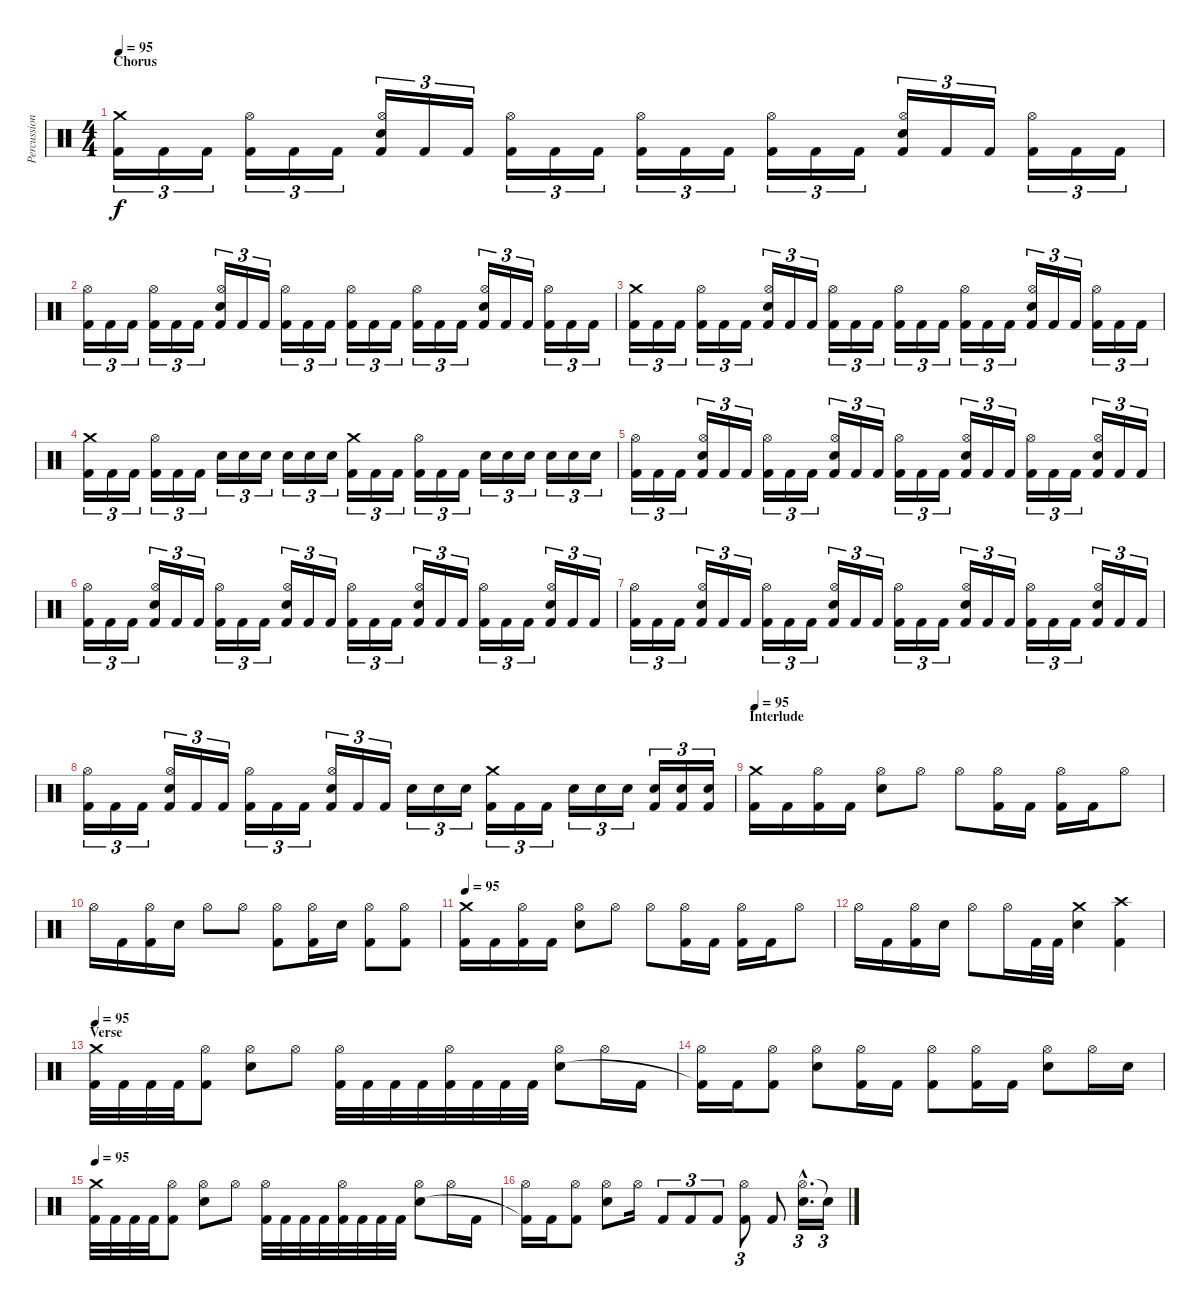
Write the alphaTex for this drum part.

\track ("Percussions" "Percussion") {instrument percussion}
\staff {score}
\articulation defaults
\ts (4 4)
\section ("" "Chorus")
\tempo 95
\clef neutral
\ks c
("Crash medium (hit)" "Kick (hit) 2").16{tu (3 2) dy f} "Kick (hit) 2".16{tu (3 2)} "Kick (hit) 2".16{tu (3 2)} ("Hi-Hat (open)" "Kick (hit) 2").16{tu (3 2)} "Kick (hit) 2".16{tu (3 2)} "Kick (hit) 2".16{tu (3 2)} ("Hi-Hat (open)" "Electric Snare (hit)" "Kick (hit) 2").16{tu (3 2)} "Kick (hit) 2".16{tu (3 2)} "Kick (hit) 2".16{tu (3 2)} ("Hi-Hat (open)" "Kick (hit) 2").16{tu (3 2)} "Kick (hit) 2".16{tu (3 2)} "Kick (hit) 2".16{tu (3 2)} ("Hi-Hat (open)" "Kick (hit) 2").16{tu (3 2)} "Kick (hit) 2".16{tu (3 2)} "Kick (hit) 2".16{tu (3 2)} ("Hi-Hat (open)" "Kick (hit) 2").16{tu (3 2)} "Kick (hit) 2".16{tu (3 2)} "Kick (hit) 2".16{tu (3 2)} ("Hi-Hat (open)" "Electric Snare (hit)" "Kick (hit) 2").16{tu (3 2)} "Kick (hit) 2".16{tu (3 2)} "Kick (hit) 2".16{tu (3 2)} ("Hi-Hat (open)" "Kick (hit) 2").16{tu (3 2)} "Kick (hit) 2".16{tu (3 2)} "Kick (hit) 2".16{tu (3 2)} |
("Hi-Hat (open)" "Kick (hit) 2").16{tu (3 2)} "Kick (hit) 2".16{tu (3 2)} "Kick (hit) 2".16{tu (3 2)} ("Hi-Hat (open)" "Kick (hit) 2").16{tu (3 2)} "Kick (hit) 2".16{tu (3 2)} "Kick (hit) 2".16{tu (3 2)} ("Hi-Hat (open)" "Electric Snare (hit)" "Kick (hit) 2").16{tu (3 2)} "Kick (hit) 2".16{tu (3 2)} "Kick (hit) 2".16{tu (3 2)} ("Hi-Hat (open)" "Kick (hit) 2").16{tu (3 2)} "Kick (hit) 2".16{tu (3 2)} "Kick (hit) 2".16{tu (3 2)} ("Hi-Hat (open)" "Kick (hit) 2").16{tu (3 2)} "Kick (hit) 2".16{tu (3 2)} "Kick (hit) 2".16{tu (3 2)} ("Hi-Hat (open)" "Kick (hit) 2").16{tu (3 2)} "Kick (hit) 2".16{tu (3 2)} "Kick (hit) 2".16{tu (3 2)} ("Hi-Hat (open)" "Electric Snare (hit)" "Kick (hit) 2").16{tu (3 2)} "Kick (hit) 2".16{tu (3 2)} "Kick (hit) 2".16{tu (3 2)} ("Hi-Hat (open)" "Kick (hit) 2").16{tu (3 2)} "Kick (hit) 2".16{tu (3 2)} "Kick (hit) 2".16{tu (3 2)} |
("Crash medium (hit)" "Kick (hit) 2").16{tu (3 2)} "Kick (hit) 2".16{tu (3 2)} "Kick (hit) 2".16{tu (3 2)} ("Hi-Hat (open)" "Kick (hit) 2").16{tu (3 2)} "Kick (hit) 2".16{tu (3 2)} "Kick (hit) 2".16{tu (3 2)} ("Hi-Hat (open)" "Electric Snare (hit)" "Kick (hit) 2").16{tu (3 2)} "Kick (hit) 2".16{tu (3 2)} "Kick (hit) 2".16{tu (3 2)} ("Hi-Hat (open)" "Kick (hit) 2").16{tu (3 2)} "Kick (hit) 2".16{tu (3 2)} "Kick (hit) 2".16{tu (3 2)} ("Hi-Hat (open)" "Kick (hit) 2").16{tu (3 2)} "Kick (hit) 2".16{tu (3 2)} "Kick (hit) 2".16{tu (3 2)} ("Hi-Hat (open)" "Kick (hit) 2").16{tu (3 2)} "Kick (hit) 2".16{tu (3 2)} "Kick (hit) 2".16{tu (3 2)} ("Hi-Hat (open)" "Electric Snare (hit)" "Kick (hit) 2").16{tu (3 2)} "Kick (hit) 2".16{tu (3 2)} "Kick (hit) 2".16{tu (3 2)} ("Hi-Hat (open)" "Kick (hit) 2").16{tu (3 2)} "Kick (hit) 2".16{tu (3 2)} "Kick (hit) 2".16{tu (3 2)} |
("Crash medium (hit)" "Kick (hit) 2").16{tu (3 2)} "Kick (hit) 2".16{tu (3 2)} "Kick (hit) 2".16{tu (3 2)} ("Hi-Hat (open)" "Kick (hit) 2").16{tu (3 2)} "Kick (hit) 2".16{tu (3 2)} "Kick (hit) 2".16{tu (3 2)} "Electric Snare (hit)".16{tu (3 2)} "Electric Snare (hit)".16{tu (3 2)} "Electric Snare (hit)".16{tu (3 2)} "Electric Snare (hit)".16{tu (3 2)} "Electric Snare (hit)".16{tu (3 2)} "Electric Snare (hit)".16{tu (3 2)} ("Crash medium (hit)" "Kick (hit) 2").16{tu (3 2)} "Kick (hit) 2".16{tu (3 2)} "Kick (hit) 2".16{tu (3 2)} ("Hi-Hat (open)" "Kick (hit) 2").16{tu (3 2)} "Kick (hit) 2".16{tu (3 2)} "Kick (hit) 2".16{tu (3 2)} "Electric Snare (hit)".16{tu (3 2)} "Electric Snare (hit)".16{tu (3 2)} "Electric Snare (hit)".16{tu (3 2)} "Electric Snare (hit)".16{tu (3 2)} "Electric Snare (hit)".16{tu (3 2)} "Electric Snare (hit)".16{tu (3 2)} |
("Hi-Hat (open)" "Kick (hit) 2").16{tu (3 2)} "Kick (hit) 2".16{tu (3 2)} "Kick (hit) 2".16{tu (3 2)} ("Hi-Hat (open)" "Electric Snare (hit)" "Kick (hit) 2").16{tu (3 2)} "Kick (hit) 2".16{tu (3 2)} "Kick (hit) 2".16{tu (3 2)} ("Hi-Hat (open)" "Kick (hit) 2").16{tu (3 2)} "Kick (hit) 2".16{tu (3 2)} "Kick (hit) 2".16{tu (3 2)} ("Hi-Hat (open)" "Electric Snare (hit)" "Kick (hit) 2").16{tu (3 2)} "Kick (hit) 2".16{tu (3 2)} "Kick (hit) 2".16{tu (3 2)} ("Hi-Hat (open)" "Kick (hit) 2").16{tu (3 2)} "Kick (hit) 2".16{tu (3 2)} "Kick (hit) 2".16{tu (3 2)} ("Hi-Hat (open)" "Electric Snare (hit)" "Kick (hit) 2").16{tu (3 2)} "Kick (hit) 2".16{tu (3 2)} "Kick (hit) 2".16{tu (3 2)} ("Hi-Hat (open)" "Kick (hit) 2").16{tu (3 2)} "Kick (hit) 2".16{tu (3 2)} "Kick (hit) 2".16{tu (3 2)} ("Hi-Hat (open)" "Electric Snare (hit)" "Kick (hit) 2").16{tu (3 2)} "Kick (hit) 2".16{tu (3 2)} "Kick (hit) 2".16{tu (3 2)} |
("Hi-Hat (open)" "Kick (hit) 2").16{tu (3 2)} "Kick (hit) 2".16{tu (3 2)} "Kick (hit) 2".16{tu (3 2)} ("Hi-Hat (open)" "Electric Snare (hit)" "Kick (hit) 2").16{tu (3 2)} "Kick (hit) 2".16{tu (3 2)} "Kick (hit) 2".16{tu (3 2)} ("Hi-Hat (open)" "Kick (hit) 2").16{tu (3 2)} "Kick (hit) 2".16{tu (3 2)} "Kick (hit) 2".16{tu (3 2)} ("Hi-Hat (open)" "Electric Snare (hit)" "Kick (hit) 2").16{tu (3 2)} "Kick (hit) 2".16{tu (3 2)} "Kick (hit) 2".16{tu (3 2)} ("Hi-Hat (open)" "Kick (hit) 2").16{tu (3 2)} "Kick (hit) 2".16{tu (3 2)} "Kick (hit) 2".16{tu (3 2)} ("Hi-Hat (open)" "Electric Snare (hit)" "Kick (hit) 2").16{tu (3 2)} "Kick (hit) 2".16{tu (3 2)} "Kick (hit) 2".16{tu (3 2)} ("Hi-Hat (open)" "Kick (hit) 2").16{tu (3 2)} "Kick (hit) 2".16{tu (3 2)} "Kick (hit) 2".16{tu (3 2)} ("Hi-Hat (open)" "Electric Snare (hit)" "Kick (hit) 2").16{tu (3 2)} "Kick (hit) 2".16{tu (3 2)} "Kick (hit) 2".16{tu (3 2)} |
("Hi-Hat (open)" "Kick (hit) 2").16{tu (3 2)} "Kick (hit) 2".16{tu (3 2)} "Kick (hit) 2".16{tu (3 2)} ("Hi-Hat (open)" "Electric Snare (hit)" "Kick (hit) 2").16{tu (3 2)} "Kick (hit) 2".16{tu (3 2)} "Kick (hit) 2".16{tu (3 2)} ("Hi-Hat (open)" "Kick (hit) 2").16{tu (3 2)} "Kick (hit) 2".16{tu (3 2)} "Kick (hit) 2".16{tu (3 2)} ("Hi-Hat (open)" "Electric Snare (hit)" "Kick (hit) 2").16{tu (3 2)} "Kick (hit) 2".16{tu (3 2)} "Kick (hit) 2".16{tu (3 2)} ("Hi-Hat (open)" "Kick (hit) 2").16{tu (3 2)} "Kick (hit) 2".16{tu (3 2)} "Kick (hit) 2".16{tu (3 2)} ("Hi-Hat (open)" "Electric Snare (hit)" "Kick (hit) 2").16{tu (3 2)} "Kick (hit) 2".16{tu (3 2)} "Kick (hit) 2".16{tu (3 2)} ("Hi-Hat (open)" "Kick (hit) 2").16{tu (3 2)} "Kick (hit) 2".16{tu (3 2)} "Kick (hit) 2".16{tu (3 2)} ("Hi-Hat (open)" "Electric Snare (hit)" "Kick (hit) 2").16{tu (3 2)} "Kick (hit) 2".16{tu (3 2)} "Kick (hit) 2".16{tu (3 2)} |
("Hi-Hat (open)" "Kick (hit) 2").16{tu (3 2)} "Kick (hit) 2".16{tu (3 2)} "Kick (hit) 2".16{tu (3 2)} ("Hi-Hat (open)" "Electric Snare (hit)" "Kick (hit) 2").16{tu (3 2)} "Kick (hit) 2".16{tu (3 2)} "Kick (hit) 2".16{tu (3 2)} ("Hi-Hat (open)" "Kick (hit) 2").16{tu (3 2)} "Kick (hit) 2".16{tu (3 2)} "Kick (hit) 2".16{tu (3 2)} ("Hi-Hat (open)" "Electric Snare (hit)" "Kick (hit) 2").16{tu (3 2)} "Kick (hit) 2".16{tu (3 2)} "Kick (hit) 2".16{tu (3 2)} "Electric Snare (hit)".16{tu (3 2)} "Electric Snare (hit)".16{tu (3 2)} "Electric Snare (hit)".16{tu (3 2)} ("Crash medium (hit)" "Kick (hit) 2").16{tu (3 2)} "Kick (hit) 2".16{tu (3 2)} "Kick (hit) 2".16{tu (3 2)} "Electric Snare (hit)".16{tu (3 2)} "Electric Snare (hit)".16{tu (3 2)} "Electric Snare (hit)".16{tu (3 2)} ("Electric Snare (hit)" "Kick (hit) 2").16{tu (3 2)} ("Electric Snare (hit)" "Kick (hit) 2").16{tu (3 2)} ("Electric Snare (hit)" "Kick (hit) 2").16{tu (3 2)} |
\section ("" "Interlude")
\tempo 95
("Crash medium (hit)" "Kick (hit) 2").16 "Kick (hit) 2".16 ("Hi-Hat (open)" "Kick (hit) 2").16 "Kick (hit) 2".16 ("Hi-Hat (open)" "Electric Snare (hit)").8 "Hi-Hat (open)".8 "Hi-Hat (open)".8 ("Hi-Hat (open)" "Kick (hit) 2").16 "Kick (hit) 2".16 ("Hi-Hat (open)" "Kick (hit) 2").16 "Kick (hit) 2".16 "Hi-Hat (open)".8 |
"Hi-Hat (open)".16 "Kick (hit) 2".16 ("Hi-Hat (open)" "Kick (hit) 2").16 "Electric Snare (hit)".16 "Hi-Hat (open)".8 "Hi-Hat (open)".8 ("Hi-Hat (open)" "Kick (hit) 2").8 ("Hi-Hat (open)" "Kick (hit) 2").16 "Electric Snare (hit)".16 ("Hi-Hat (open)" "Kick (hit) 2").8 ("Hi-Hat (open)" "Kick (hit) 2").8 |
\tempo 95
("Crash medium (hit)" "Kick (hit) 2").16 "Kick (hit) 2".16 ("Hi-Hat (open)" "Kick (hit) 2").16 "Kick (hit) 2".16 ("Hi-Hat (open)" "Electric Snare (hit)").8 "Hi-Hat (open)".8 "Hi-Hat (open)".8 ("Hi-Hat (open)" "Kick (hit) 2").16 "Kick (hit) 2".16 ("Hi-Hat (open)" "Kick (hit) 2").16 "Kick (hit) 2".16 "Hi-Hat (open)".8 |
"Hi-Hat (open)".16 "Kick (hit) 2".16 ("Hi-Hat (open)" "Kick (hit) 2").16 "Electric Snare (hit)".16 "Hi-Hat (open)".8 "Hi-Hat (open)".16 "Kick (hit) 2".32 "Kick (hit) 2".32 ("Crash medium (hit)" "Electric Snare (hit)").4 ("Crash high (hit)" "Kick (hit) 2").4 |
\section ("" "Verse")
\tempo 95
("Crash medium (hit)" "Kick (hit) 2").32 "Kick (hit) 2".32 "Kick (hit) 2".32 "Kick (hit) 2".32 ("Hi-Hat (open)" "Kick (hit) 2").8 ("Hi-Hat (open)" "Electric Snare (hit)").8 "Hi-Hat (open)".8 ("Hi-Hat (open)" "Kick (hit) 2").32 "Kick (hit) 2".32 "Kick (hit) 2".32 "Kick (hit) 2".32 ("Hi-Hat (open)" "Kick (hit) 2").32 "Kick (hit) 2".32 "Kick (hit) 2".32 "Kick (hit) 2".32 ("Hi-Hat (open)" "Electric Snare (hit)").8 "Hi-Hat (open)".16 "Kick (hit) 2".16 |
("Hi-Hat (open)" "Kick (hit) 2"{t}).16 "Kick (hit) 2".16 ("Hi-Hat (open)" "Kick (hit) 2").8 ("Hi-Hat (open)" "Electric Snare (hit)").8 ("Hi-Hat (open)" "Kick (hit) 2").16 "Kick (hit) 2".16 ("Hi-Hat (open)" "Kick (hit) 2").8 ("Hi-Hat (open)" "Kick (hit) 2").16 "Kick (hit) 2".16 ("Hi-Hat (open)" "Electric Snare (hit)").8 "Hi-Hat (open)".16 "Electric Snare (hit)".16 |
\tempo 95
("Crash medium (hit)" "Kick (hit) 2").32 "Kick (hit) 2".32 "Kick (hit) 2".32 "Kick (hit) 2".32 ("Hi-Hat (open)" "Kick (hit) 2").8 ("Hi-Hat (open)" "Electric Snare (hit)").8 "Hi-Hat (open)".8 ("Hi-Hat (open)" "Kick (hit) 2").32 "Kick (hit) 2".32 "Kick (hit) 2".32 "Kick (hit) 2".32 ("Hi-Hat (open)" "Kick (hit) 2").32 "Kick (hit) 2".32 "Kick (hit) 2".32 "Kick (hit) 2".32 ("Hi-Hat (open)" "Electric Snare (hit)").8 "Hi-Hat (open)".16 "Kick (hit) 2".16 |
("Hi-Hat (open)" "Kick (hit) 2"{t}).16 "Kick (hit) 2".16 ("Hi-Hat (open)" "Kick (hit) 2").8 ("Hi-Hat (open)" "Electric Snare (hit)").8 "Hi-Hat (open)".16 "Kick (hit) 2".8{tu (3 2)} "Kick (hit) 2".8{tu (3 2)} "Kick (hit) 2".8{tu (3 2)} ("Hi-Hat (open)" "Kick (hit) 2").8{tu (3 2)} "Kick (hit) 2".8 ("Hi-Hat (open)"{hac} "Electric Snare (hit)"{hac}).16{d tu (3 2)} "Electric Snare (hit)"{t}.16{tu (3 2)}
